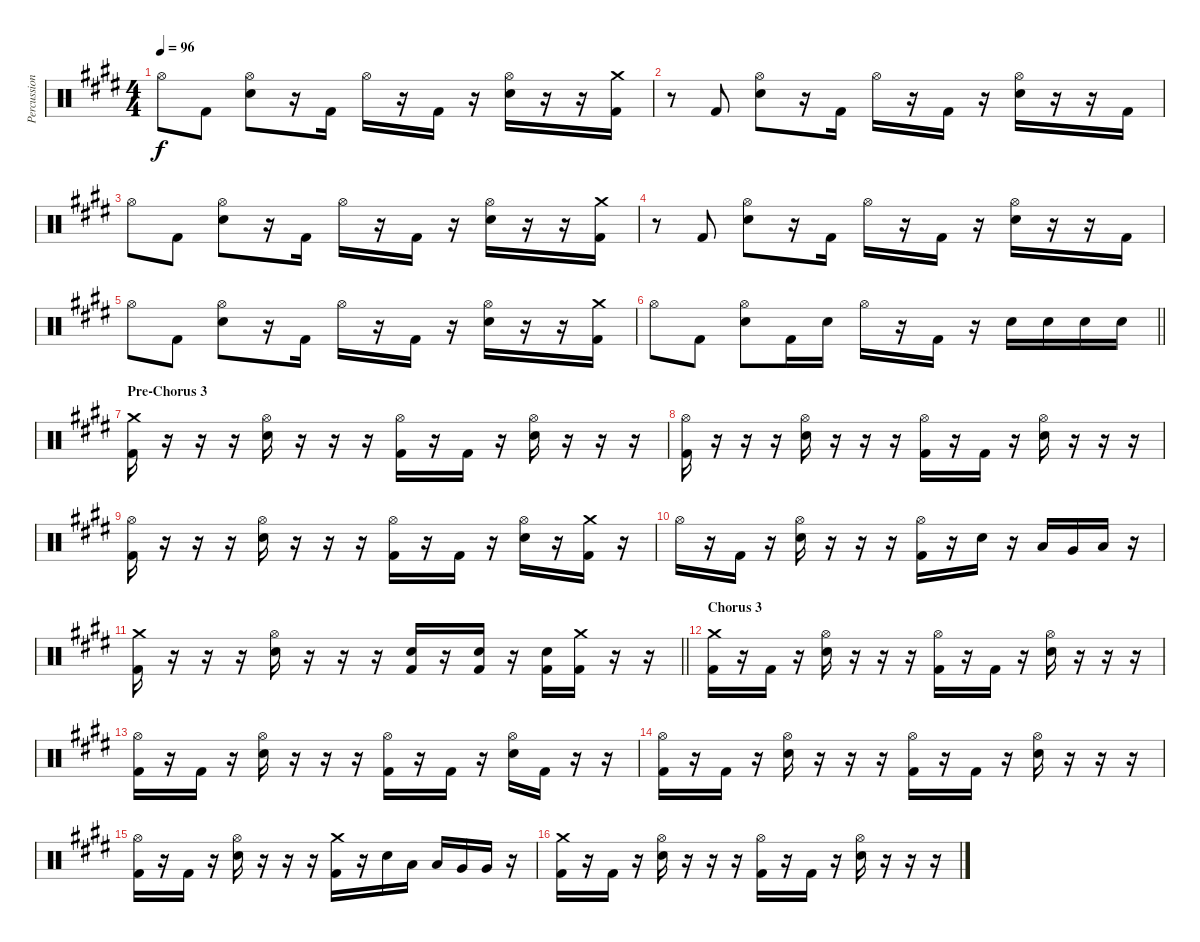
\track ("Percussioni" "Percussion") {instrument percussion}
\staff {score}
\articulation defaults
\ts (4 4)
\tempo 96
\clef neutral
\ks c#minor "Hi-Hat (open)".8{dy f} "Kick (hit) 2".8
("Electric Snare (hit)" "Hi-Hat (open)").8 r.16 "Kick (hit) 2".16 "Hi-Hat (open)".16 r.16 "Kick (hit) 2".16 r.16 ("Electric Snare (hit)" "Hi-Hat (open)").16 r.16 r.16 ("Kick (hit) 2" "Crash medium (hit)").16 |
r.8 "Kick (hit) 2".8 ("Electric Snare (hit)" "Hi-Hat (open)").8 r.16 "Kick (hit) 2".16 "Hi-Hat (open)".16 r.16 "Kick (hit) 2".16 r.16 ("Electric Snare (hit)" "Hi-Hat (open)").16 r.16 r.16 "Kick (hit) 2".16 |
"Hi-Hat (open)".8 "Kick (hit) 2".8 ("Electric Snare (hit)" "Hi-Hat (open)").8 r.16 "Kick (hit) 2".16 "Hi-Hat (open)".16 r.16 "Kick (hit) 2".16 r.16 ("Electric Snare (hit)" "Hi-Hat (open)").16 r.16 r.16 ("Kick (hit) 2" "Crash medium (hit)").16 |
r.8 "Kick (hit) 2".8 ("Electric Snare (hit)" "Hi-Hat (open)").8 r.16 "Kick (hit) 2".16 "Hi-Hat (open)".16 r.16 "Kick (hit) 2".16 r.16 ("Electric Snare (hit)" "Hi-Hat (open)").16 r.16 r.16 "Kick (hit) 2".16 |
"Hi-Hat (open)".8 "Kick (hit) 2".8 ("Electric Snare (hit)" "Hi-Hat (open)").8 r.16 "Kick (hit) 2".16 "Hi-Hat (open)".16 r.16 "Kick (hit) 2".16 r.16 ("Electric Snare (hit)" "Hi-Hat (open)").16 r.16 r.16 ("Kick (hit) 2" "Crash medium (hit)").16 |
\barLineRight lightlight
\ks e "Hi-Hat (open)".8 "Kick (hit) 2".8
("Electric Snare (hit)" "Hi-Hat (open)").8 "Kick (hit) 2".16 "Electric Snare (hit)".16 "Hi-Hat (open)".16 r.16 "Kick (hit) 2".16 r.16 "Electric Snare (hit)".16 "Electric Snare (hit)".16 "Electric Snare (hit)".16 "Electric Snare (hit)".16 |
\section ("" "Pre-Chorus 3")
\ks c#minor
("Kick (hit) 2" "Crash medium (hit)").16 r.16 r.16 r.16 ("Electric Snare (hit)" "Hi-Hat (open)").16 r.16 r.16 r.16 ("Kick (hit) 2" "Hi-Hat (open)").16 r.16 "Kick (hit) 2".16 r.16 ("Electric Snare (hit)" "Hi-Hat (open)").16 r.16 r.16 r.16 |
("Kick (hit) 2" "Hi-Hat (open)").16 r.16 r.16 r.16 ("Electric Snare (hit)" "Hi-Hat (open)").16 r.16 r.16 r.16 ("Kick (hit) 2" "Hi-Hat (open)").16 r.16 "Kick (hit) 2".16 r.16 ("Electric Snare (hit)" "Hi-Hat (open)").16 r.16 r.16 r.16 |
("Kick (hit) 2" "Hi-Hat (open)").16 r.16 r.16 r.16 ("Electric Snare (hit)" "Hi-Hat (open)").16 r.16 r.16 r.16 ("Kick (hit) 2" "Hi-Hat (open)").16 r.16 "Kick (hit) 2".16 r.16 ("Electric Snare (hit)" "Hi-Hat (open)").16 r.16 ("Kick (hit) 2" "Crash medium (hit)").16 r.16 |
"Hi-Hat (open)".16 r.16 "Kick (hit) 2".16 r.16 ("Electric Snare (hit)" "Hi-Hat (open)").16 r.16 r.16 r.16 ("Kick (hit) 2" "Hi-Hat (open)").16 r.16 "Electric Snare (hit)".16 r.16 "Low Tom (hit)".16 "Very Low Tom (hit)".16 "Low Floor Tom (hit)".16 r.16 |
\barLineRight lightlight
\ks e
("Kick (hit) 2" "Crash medium (hit)").16 r.16 r.16 r.16 ("Electric Snare (hit)" "Hi-Hat (open)").16 r.16 r.16 r.16 ("Kick (hit) 2" "Electric Snare (hit)").16 r.16 ("Electric Snare (hit)" "Kick (hit) 2").16 r.16 ("Electric Snare (hit)" "Kick (hit) 2").16 ("Kick (hit) 2" "Crash medium (hit)").16 r.16 r.16 |
\section ("" "Chorus 3")
\ks c#minor
("Kick (hit) 2" "Crash medium (hit)").16 r.16 "Kick (hit) 2".16 r.16 ("Electric Snare (hit)" "Hi-Hat (open)").16 r.16 r.16 r.16 ("Kick (hit) 2" "Hi-Hat (open)").16 r.16 "Kick (hit) 2".16 r.16 ("Electric Snare (hit)" "Hi-Hat (open)").16 r.16 r.16 r.16 |
("Kick (hit) 2" "Hi-Hat (open)").16 r.16 "Kick (hit) 2".16 r.16 ("Electric Snare (hit)" "Hi-Hat (open)").16 r.16 r.16 r.16 ("Kick (hit) 2" "Hi-Hat (open)").16 r.16 "Kick (hit) 2".16 r.16 ("Electric Snare (hit)" "Hi-Hat (open)").16 "Kick (hit) 2".16 r.16 r.16 |
("Kick (hit) 2" "Hi-Hat (open)").16 r.16 "Kick (hit) 2".16 r.16 ("Electric Snare (hit)" "Hi-Hat (open)").16 r.16 r.16 r.16 ("Kick (hit) 2" "Hi-Hat (open)").16 r.16 "Kick (hit) 2".16 r.16 ("Electric Snare (hit)" "Hi-Hat (open)").16 r.16 r.16 r.16 |
\ks e
("Kick (hit) 2" "Hi-Hat (open)").16 r.16 "Kick (hit) 2".16 r.16 ("Electric Snare (hit)" "Hi-Hat (open)").16 r.16 r.16 r.16 ("Kick (hit) 2" "Crash medium (hit)").16 r.16 "Electric Snare (hit)".16 "Low Tom (hit)".16 "Low Tom (hit)".16 "Very Low Tom (hit)".16 "Very Low Tom (hit)".16 r.16 |
\ks c#minor
("Kick (hit) 2" "Crash medium (hit)").16 r.16 "Kick (hit) 2".16 r.16 ("Electric Snare (hit)" "Hi-Hat (open)").16 r.16 r.16 r.16 ("Kick (hit) 2" "Hi-Hat (open)").16 r.16 "Kick (hit) 2".16 r.16 ("Electric Snare (hit)" "Hi-Hat (open)").16 r.16 r.16 r.16
